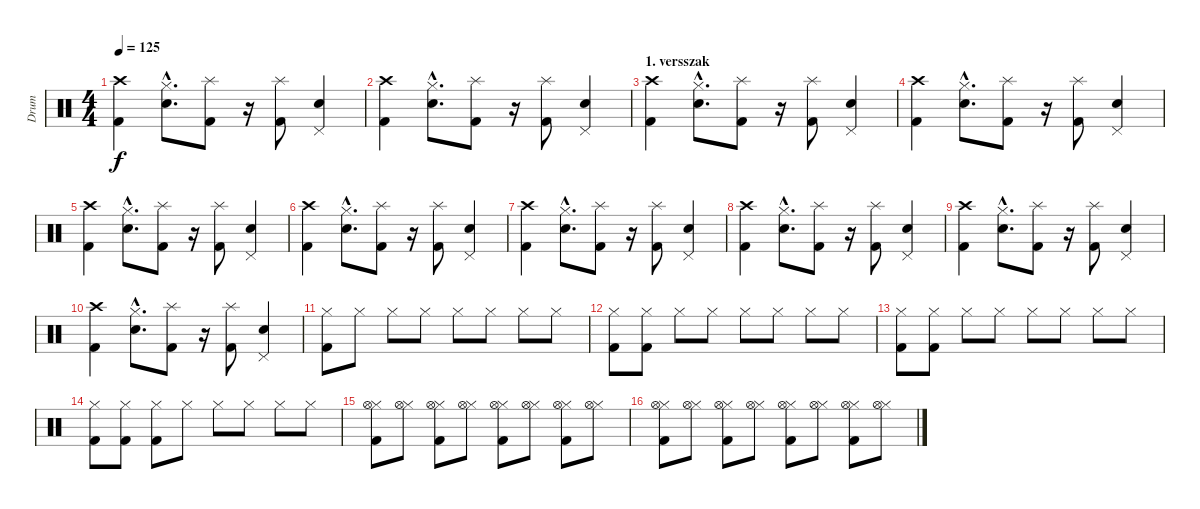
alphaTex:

\track ("Drum" "Drum") {instrument percussion}
\staff {score}
\articulation defaults
\ts (4 4)
\tempo 125
\clef neutral
\ks c
("Kick (hit) 2" "Crash high (hit)").4{dy f} ("Snare (hit) 2"{hac} "Hi-Hat (closed)"{hac}).8{d} ("Kick (hit) 2" "Splash (hit)").8 r.16 ("Kick (hit) 2" "Splash (hit)").8 ("Snare (hit) 2" "Pedal Hi-Hat (hit)").4 |
("Kick (hit) 2" "Crash high (hit)").4 ("Snare (hit) 2"{hac} "Hi-Hat (closed)"{hac}).8{d} ("Kick (hit) 2" "Splash (hit)").8 r.16 ("Kick (hit) 2" "Splash (hit)").8 ("Snare (hit) 2" "Pedal Hi-Hat (hit)").4 |
\section ("" "1. versszak")
("Kick (hit) 2" "Crash high (hit)").4 ("Snare (hit) 2"{hac} "Hi-Hat (closed)"{hac}).8{d} ("Kick (hit) 2" "Splash (hit)").8 r.16 ("Kick (hit) 2" "Splash (hit)").8 ("Snare (hit) 2" "Pedal Hi-Hat (hit)").4 |
("Kick (hit) 2" "Crash high (hit)").4 ("Snare (hit) 2"{hac} "Hi-Hat (closed)"{hac}).8{d} ("Kick (hit) 2" "Splash (hit)").8 r.16 ("Kick (hit) 2" "Splash (hit)").8 ("Snare (hit) 2" "Pedal Hi-Hat (hit)").4 |
("Kick (hit) 2" "Crash high (hit)").4 ("Snare (hit) 2"{hac} "Hi-Hat (closed)"{hac}).8{d} ("Kick (hit) 2" "Splash (hit)").8 r.16 ("Kick (hit) 2" "Splash (hit)").8 ("Snare (hit) 2" "Pedal Hi-Hat (hit)").4 |
("Kick (hit) 2" "Crash high (hit)").4 ("Snare (hit) 2"{hac} "Hi-Hat (closed)"{hac}).8{d} ("Kick (hit) 2" "Splash (hit)").8 r.16 ("Kick (hit) 2" "Splash (hit)").8 ("Snare (hit) 2" "Pedal Hi-Hat (hit)").4 |
("Kick (hit) 2" "Crash high (hit)").4 ("Snare (hit) 2"{hac} "Hi-Hat (closed)"{hac}).8{d} ("Kick (hit) 2" "Splash (hit)").8 r.16 ("Kick (hit) 2" "Splash (hit)").8 ("Snare (hit) 2" "Pedal Hi-Hat (hit)").4 |
("Kick (hit) 2" "Crash high (hit)").4 ("Snare (hit) 2"{hac} "Hi-Hat (closed)"{hac}).8{d} ("Kick (hit) 2" "Splash (hit)").8 r.16 ("Kick (hit) 2" "Splash (hit)").8 ("Snare (hit) 2" "Pedal Hi-Hat (hit)").4 |
("Kick (hit) 2" "Crash high (hit)").4 ("Snare (hit) 2"{hac} "Hi-Hat (closed)"{hac}).8{d} ("Kick (hit) 2" "Splash (hit)").8 r.16 ("Kick (hit) 2" "Splash (hit)").8 ("Snare (hit) 2" "Pedal Hi-Hat (hit)").4 |
("Kick (hit) 2" "Crash high (hit)").4 ("Snare (hit) 2"{hac} "Hi-Hat (closed)"{hac}).8{d} ("Kick (hit) 2" "Splash (hit)").8 r.16 ("Kick (hit) 2" "Splash (hit)").8 ("Snare (hit) 2" "Pedal Hi-Hat (hit)").4 |
("Hi-Hat (closed)" "Kick (hit) 2").8 "Hi-Hat (closed)".8 "Hi-Hat (closed)".8 "Hi-Hat (closed)".8 "Hi-Hat (closed)".8 "Hi-Hat (closed)".8 "Hi-Hat (closed)".8 "Hi-Hat (closed)".8 |
("Hi-Hat (closed)" "Kick (hit) 2").8 ("Hi-Hat (closed)" "Kick (hit) 2").8 "Hi-Hat (closed)".8 "Hi-Hat (closed)".8 "Hi-Hat (closed)".8 "Hi-Hat (closed)".8 "Hi-Hat (closed)".8 "Hi-Hat (closed)".8 |
("Hi-Hat (closed)" "Kick (hit) 2").8 ("Hi-Hat (closed)" "Kick (hit) 2").8 "Hi-Hat (closed)".8 "Hi-Hat (closed)".8 "Hi-Hat (closed)".8 "Hi-Hat (closed)".8 "Hi-Hat (closed)".8 "Hi-Hat (closed)".8 |
("Hi-Hat (closed)" "Kick (hit) 2").8 ("Hi-Hat (closed)" "Kick (hit) 2").8 ("Hi-Hat (closed)" "Kick (hit) 2").8 "Hi-Hat (closed)".8 "Hi-Hat (closed)".8 "Hi-Hat (closed)".8 "Hi-Hat (closed)".8 "Hi-Hat (closed)".8 |
("Hi-Hat (closed)" "Kick (hit) 2" "Hi-Hat (open)").8 ("Hi-Hat (closed)" "Hi-Hat (open)").8 ("Hi-Hat (closed)" "Kick (hit) 2" "Hi-Hat (open)").8 ("Hi-Hat (closed)" "Hi-Hat (open)").8 ("Hi-Hat (closed)" "Kick (hit) 2" "Hi-Hat (open)").8 ("Hi-Hat (closed)" "Hi-Hat (open)").8 ("Hi-Hat (closed)" "Kick (hit) 2" "Hi-Hat (open)").8 ("Hi-Hat (closed)" "Hi-Hat (open)").8 |
("Hi-Hat (closed)" "Kick (hit) 2" "Hi-Hat (open)").8 ("Hi-Hat (closed)" "Hi-Hat (open)").8 ("Hi-Hat (closed)" "Kick (hit) 2" "Hi-Hat (open)").8 ("Hi-Hat (closed)" "Hi-Hat (open)").8 ("Hi-Hat (closed)" "Kick (hit) 2" "Hi-Hat (open)").8 ("Hi-Hat (closed)" "Hi-Hat (open)").8 ("Hi-Hat (closed)" "Kick (hit) 2" "Hi-Hat (open)").8 ("Hi-Hat (closed)" "Hi-Hat (open)").8
